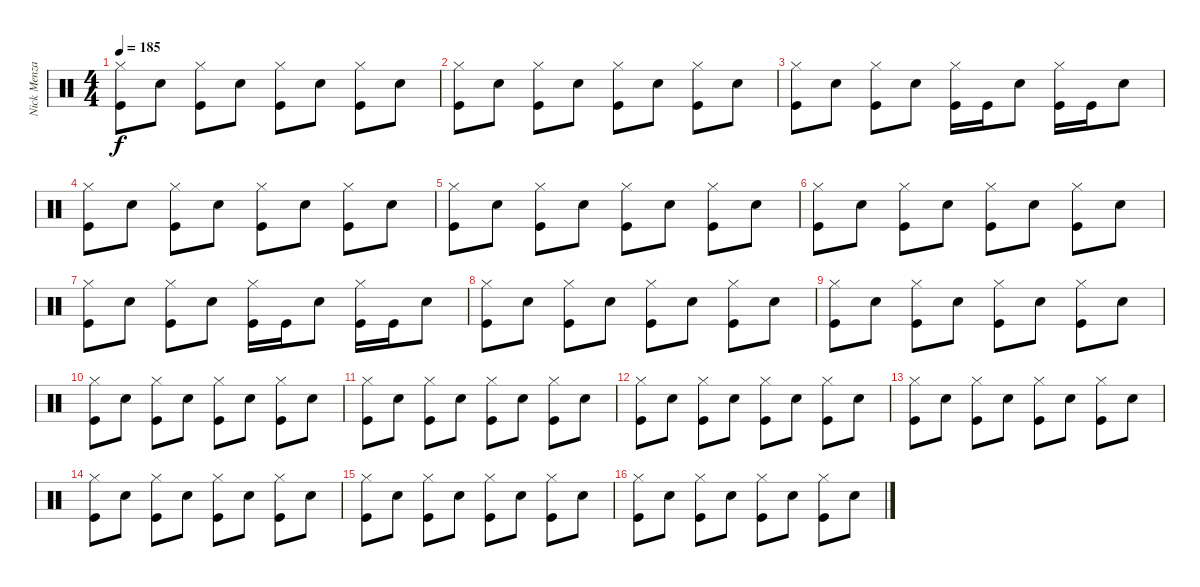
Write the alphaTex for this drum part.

\track ("Nick Menza" "Nick Menza") {instrument percussion}
\staff {score}
\articulation defaults
\ts (4 4)
\tempo 185
\clef neutral
\ks c
("Hi-Hat (closed)" "Kick (hit)").8{dy f} "Snare (hit) 2".8 ("Hi-Hat (closed)" "Kick (hit)").8 "Snare (hit) 2".8 ("Hi-Hat (closed)" "Kick (hit)").8 "Snare (hit) 2".8 ("Hi-Hat (closed)" "Kick (hit)").8 "Snare (hit) 2".8 |
("Hi-Hat (closed)" "Kick (hit)").8 "Snare (hit) 2".8 ("Hi-Hat (closed)" "Kick (hit)").8 "Snare (hit) 2".8 ("Hi-Hat (closed)" "Kick (hit)").8 "Snare (hit) 2".8 ("Hi-Hat (closed)" "Kick (hit)").8 "Snare (hit) 2".8 |
("Hi-Hat (closed)" "Kick (hit)").8 "Snare (hit) 2".8 ("Hi-Hat (closed)" "Kick (hit)").8 "Snare (hit) 2".8 ("Hi-Hat (closed)" "Kick (hit)").16 "Kick (hit)".16 "Snare (hit) 2".8 ("Hi-Hat (closed)" "Kick (hit)").16 "Kick (hit)".16 "Snare (hit) 2".8 |
("Hi-Hat (closed)" "Kick (hit)").8 "Snare (hit) 2".8 ("Hi-Hat (closed)" "Kick (hit)").8 "Snare (hit) 2".8 ("Hi-Hat (closed)" "Kick (hit)").8 "Snare (hit) 2".8 ("Hi-Hat (closed)" "Kick (hit)").8 "Snare (hit) 2".8 |
("Hi-Hat (closed)" "Kick (hit)").8 "Snare (hit) 2".8 ("Hi-Hat (closed)" "Kick (hit)").8 "Snare (hit) 2".8 ("Hi-Hat (closed)" "Kick (hit)").8 "Snare (hit) 2".8 ("Hi-Hat (closed)" "Kick (hit)").8 "Snare (hit) 2".8 |
("Hi-Hat (closed)" "Kick (hit)").8 "Snare (hit) 2".8 ("Hi-Hat (closed)" "Kick (hit)").8 "Snare (hit) 2".8 ("Hi-Hat (closed)" "Kick (hit)").8 "Snare (hit) 2".8 ("Hi-Hat (closed)" "Kick (hit)").8 "Snare (hit) 2".8 |
("Hi-Hat (closed)" "Kick (hit)").8 "Snare (hit) 2".8 ("Hi-Hat (closed)" "Kick (hit)").8 "Snare (hit) 2".8 ("Hi-Hat (closed)" "Kick (hit)").16 "Kick (hit)".16 "Snare (hit) 2".8 ("Hi-Hat (closed)" "Kick (hit)").16 "Kick (hit)".16 "Snare (hit) 2".8 |
("Hi-Hat (closed)" "Kick (hit)").8 "Snare (hit) 2".8 ("Hi-Hat (closed)" "Kick (hit)").8 "Snare (hit) 2".8 ("Hi-Hat (closed)" "Kick (hit)").8 "Snare (hit) 2".8 ("Hi-Hat (closed)" "Kick (hit)").8 "Snare (hit) 2".8 |
("Hi-Hat (closed)" "Kick (hit)").8 "Snare (hit) 2".8 ("Hi-Hat (closed)" "Kick (hit)").8 "Snare (hit) 2".8 ("Hi-Hat (closed)" "Kick (hit)").8 "Snare (hit) 2".8 ("Hi-Hat (closed)" "Kick (hit)").8 "Snare (hit) 2".8 |
("Hi-Hat (closed)" "Kick (hit)").8 "Snare (hit) 2".8 ("Hi-Hat (closed)" "Kick (hit)").8 "Snare (hit) 2".8 ("Hi-Hat (closed)" "Kick (hit)").8 "Snare (hit) 2".8 ("Hi-Hat (closed)" "Kick (hit)").8 "Snare (hit) 2".8 |
("Hi-Hat (closed)" "Kick (hit)").8 "Snare (hit) 2".8 ("Hi-Hat (closed)" "Kick (hit)").8 "Snare (hit) 2".8 ("Hi-Hat (closed)" "Kick (hit)").8 "Snare (hit) 2".8 ("Hi-Hat (closed)" "Kick (hit)").8 "Snare (hit) 2".8 |
("Hi-Hat (closed)" "Kick (hit)").8 "Snare (hit) 2".8 ("Hi-Hat (closed)" "Kick (hit)").8 "Snare (hit) 2".8 ("Hi-Hat (closed)" "Kick (hit)").8 "Snare (hit) 2".8 ("Hi-Hat (closed)" "Kick (hit)").8 "Snare (hit) 2".8 |
("Hi-Hat (closed)" "Kick (hit)").8 "Snare (hit) 2".8 ("Hi-Hat (closed)" "Kick (hit)").8 "Snare (hit) 2".8 ("Hi-Hat (closed)" "Kick (hit)").8 "Snare (hit) 2".8 ("Hi-Hat (closed)" "Kick (hit)").8 "Snare (hit) 2".8 |
("Hi-Hat (closed)" "Kick (hit)").8 "Snare (hit) 2".8 ("Hi-Hat (closed)" "Kick (hit)").8 "Snare (hit) 2".8 ("Hi-Hat (closed)" "Kick (hit)").8 "Snare (hit) 2".8 ("Hi-Hat (closed)" "Kick (hit)").8 "Snare (hit) 2".8 |
("Hi-Hat (closed)" "Kick (hit)").8 "Snare (hit) 2".8 ("Hi-Hat (closed)" "Kick (hit)").8 "Snare (hit) 2".8 ("Hi-Hat (closed)" "Kick (hit)").8 "Snare (hit) 2".8 ("Hi-Hat (closed)" "Kick (hit)").8 "Snare (hit) 2".8 |
("Hi-Hat (closed)" "Kick (hit)").8 "Snare (hit) 2".8 ("Hi-Hat (closed)" "Kick (hit)").8 "Snare (hit) 2".8 ("Hi-Hat (closed)" "Kick (hit)").8 "Snare (hit) 2".8 ("Hi-Hat (closed)" "Kick (hit)").8 "Snare (hit) 2".8
